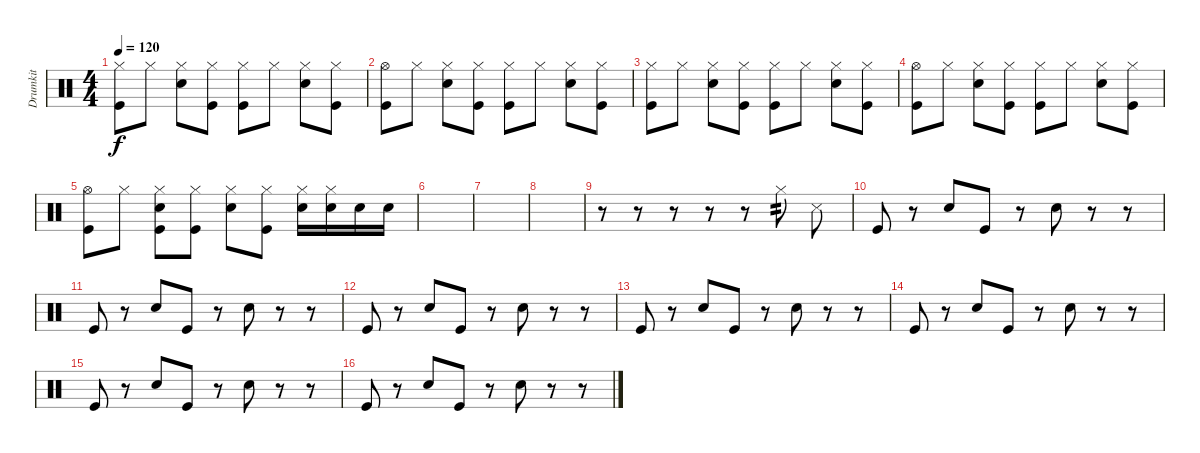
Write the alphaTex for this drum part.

\track ("Drumkit" "Drumkit") {instrument percussion}
\staff {score}
\articulation defaults
\ts (4 4)
\tempo 120
\clef neutral
\ks c
("Kick (hit)" "Hi-Hat (closed)").8{dy f} "Hi-Hat (closed)".8 ("Snare (hit) 2" "Hi-Hat (closed)").8 ("Kick (hit)" "Hi-Hat (closed)").8 ("Kick (hit)" "Hi-Hat (closed)").8 "Hi-Hat (closed)".8 ("Snare (hit) 2" "Hi-Hat (closed)").8 ("Kick (hit)" "Hi-Hat (closed)").8 |
("Kick (hit)" "Hi-Hat (open)").8 "Hi-Hat (closed)".8 ("Snare (hit) 2" "Hi-Hat (closed)").8 ("Kick (hit)" "Hi-Hat (closed)").8 ("Kick (hit)" "Hi-Hat (closed)").8 "Hi-Hat (closed)".8 ("Snare (hit) 2" "Hi-Hat (closed)").8 ("Kick (hit)" "Hi-Hat (closed)").8 |
("Kick (hit)" "Hi-Hat (closed)").8 "Hi-Hat (closed)".8 ("Snare (hit) 2" "Hi-Hat (closed)").8 ("Kick (hit)" "Hi-Hat (closed)").8 ("Kick (hit)" "Hi-Hat (closed)").8 "Hi-Hat (closed)".8 ("Snare (hit) 2" "Hi-Hat (closed)").8 ("Kick (hit)" "Hi-Hat (closed)").8 |
("Kick (hit)" "Hi-Hat (open)").8 "Hi-Hat (closed)".8 ("Snare (hit) 2" "Hi-Hat (closed)").8 ("Kick (hit)" "Hi-Hat (closed)").8 ("Kick (hit)" "Hi-Hat (closed)").8 "Hi-Hat (closed)".8 ("Snare (hit) 2" "Hi-Hat (closed)").8 ("Kick (hit)" "Hi-Hat (closed)").8 |
("Kick (hit)" "Hi-Hat (open)").8 "Hi-Hat (closed)".8 ("Hi-Hat (closed)" "Kick (hit)" "Snare (hit) 2").8 ("Kick (hit)" "Hi-Hat (closed)").8 ("Snare (hit) 2" "Hi-Hat (closed)").8 ("Kick (hit)" "Hi-Hat (closed)").8 ("Snare (hit) 2" "Hi-Hat (closed)").16 ("Hi-Hat (closed)" "Snare (hit) 2").16 "Snare (hit) 2".16 "Snare (hit) 2".16 |
|
|
|
r.8 r.8 r.8 r.8 r.8 "Hi-Hat (closed)".8{tp 2} "Snare (side stick) 3".8 |
"Kick (hit)".8 r.8 "Snare (hit) 2".8 "Kick (hit)".8 r.8 "Snare (hit) 2".8 r.8 r.8 |
"Kick (hit)".8 r.8 "Snare (hit) 2".8 "Kick (hit)".8 r.8 "Snare (hit) 2".8 r.8 r.8 |
"Kick (hit)".8 r.8 "Snare (hit) 2".8 "Kick (hit)".8 r.8 "Snare (hit) 2".8 r.8 r.8 |
"Kick (hit)".8 r.8 "Snare (hit) 2".8 "Kick (hit)".8 r.8 "Snare (hit) 2".8 r.8 r.8 |
"Kick (hit)".8 r.8 "Snare (hit) 2".8 "Kick (hit)".8 r.8 "Snare (hit) 2".8 r.8 r.8 |
"Kick (hit)".8 r.8 "Snare (hit) 2".8 "Kick (hit)".8 r.8 "Snare (hit) 2".8 r.8 r.8 |
"Kick (hit)".8 r.8 "Snare (hit) 2".8 "Kick (hit)".8 r.8 "Snare (hit) 2".8 r.8 r.8
